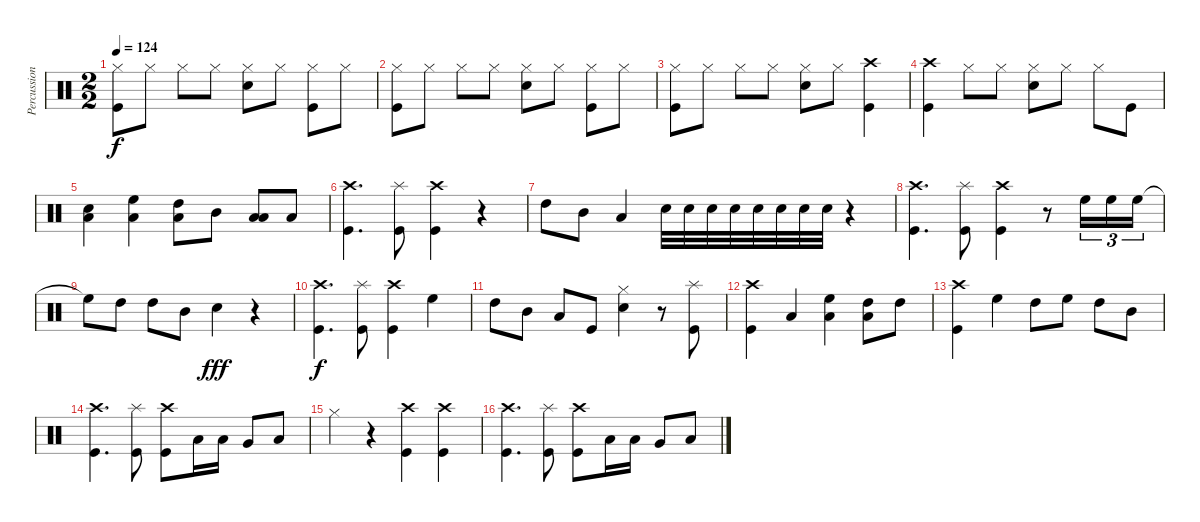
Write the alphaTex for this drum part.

\track ("Percussions" "Percussion") {instrument percussion}
\staff {score}
\articulation defaults
\ts (2 2)
\tempo 124
\clef neutral
\ks c
("Hi-Hat (closed)" "Kick (hit)").8{dy f} "Hi-Hat (closed)".8 "Hi-Hat (closed)".8 "Hi-Hat (closed)".8 ("Hi-Hat (closed)" "Snare (hit) 2").8 "Hi-Hat (closed)".8 ("Hi-Hat (closed)" "Kick (hit)").8 "Hi-Hat (closed)".8 |
("Hi-Hat (closed)" "Kick (hit)").8 "Hi-Hat (closed)".8 "Hi-Hat (closed)".8 "Hi-Hat (closed)".8 ("Hi-Hat (closed)" "Snare (hit) 2").8 "Hi-Hat (closed)".8 ("Hi-Hat (closed)" "Kick (hit)").8 "Hi-Hat (closed)".8 |
("Hi-Hat (closed)" "Kick (hit)").8 "Hi-Hat (closed)".8 "Hi-Hat (closed)".8 "Hi-Hat (closed)".8 ("Hi-Hat (closed)" "Snare (hit) 2").8 "Hi-Hat (closed)".8 ("Crash high (hit)" "Kick (hit)").4 |
("Crash high (hit)" "Kick (hit)").4 "Hi-Hat (closed)".8 "Hi-Hat (closed)".8 ("Hi-Hat (closed)" "Snare (hit) 2").8 "Hi-Hat (closed)".8 "Hi-Hat (closed)".8 "Kick (hit)".8 |
("Snare (hit) 2" "Low Floor Tom (hit)").4 ("High Floor Tom (hit)" "Low Floor Tom (hit)").4 ("High Tom (hit)" "Low Floor Tom (hit)").8 "Mid Tom (hit)".8 ("Low Tom (hit)" "Low Floor Tom (hit)").8 "Low Tom (hit)".8 |
("Crash high (hit)" "Kick (hit)").4{d} ("Splash (hit)" "Kick (hit)").8 ("Crash high (hit)" "Kick (hit)").4 r.4 |
"High Tom (hit)".8 "Mid Tom (hit)".8 "Low Tom (hit)".4 "Snare (hit) 2".32 "Snare (hit) 2".32 "Snare (hit) 2".32 "Snare (hit) 2".32 "Snare (hit) 2".32 "Snare (hit) 2".32 "Snare (hit) 2".32 "Snare (hit) 2".32 r.4 |
("Crash high (hit)" "Kick (hit)").4{d} ("Splash (hit)" "Kick (hit)").8 ("Crash high (hit)" "Kick (hit)").4 r.8 "High Floor Tom (hit)".16{tu (3 2)} "High Floor Tom (hit)".16{tu (3 2)} "High Floor Tom (hit)".16{tu (3 2)} |
"High Floor Tom (hit)"{t}.8 "High Tom (hit)".8 "High Tom (hit)".8 "Mid Tom (hit)".8 "Snare (hit) 2".4{dy fff} r.4 |
("Crash high (hit)" "Kick (hit)").4{d dy f} ("Splash (hit)" "Kick (hit)").8 ("Crash high (hit)" "Kick (hit)").4 "High Floor Tom (hit)".4 |
"High Tom (hit)".8 "Mid Tom (hit)".8 "Low Tom (hit)".8 "Kick (hit)".8 ("Hi-Hat (closed)" "Snare (hit) 2").4 r.8 ("Splash (hit)" "Kick (hit)").8 |
("Crash high (hit)" "Kick (hit)").4 "Low Floor Tom (hit)".4 ("High Floor Tom (hit)" "Low Floor Tom (hit)").4 ("High Tom (hit)" "Low Floor Tom (hit)").8 "High Tom (hit)".8 |
("Crash high (hit)" "Kick (hit)").4 "High Floor Tom (hit)".4 "High Tom (hit)".8 "High Floor Tom (hit)".8 "High Tom (hit)".8 "Mid Tom (hit)".8 |
("Crash high (hit)" "Kick (hit)").4{d} ("Splash (hit)" "Kick (hit)").8 ("Crash high (hit)" "Kick (hit)").8 "Low Floor Tom (hit)".16 "Low Floor Tom (hit)".16 "Very Low Tom (hit)".8 "Low Floor Tom (hit)".8 |
"Hi-Hat (closed)".4 r.4 ("Crash high (hit)" "Kick (hit)").4 ("Crash high (hit)" "Kick (hit)").4 |
("Crash high (hit)" "Kick (hit)").4{d} ("Splash (hit)" "Kick (hit)").8 ("Crash high (hit)" "Kick (hit)").8 "Low Floor Tom (hit)".16 "Low Floor Tom (hit)".16 "Very Low Tom (hit)".8 "Low Floor Tom (hit)".8
